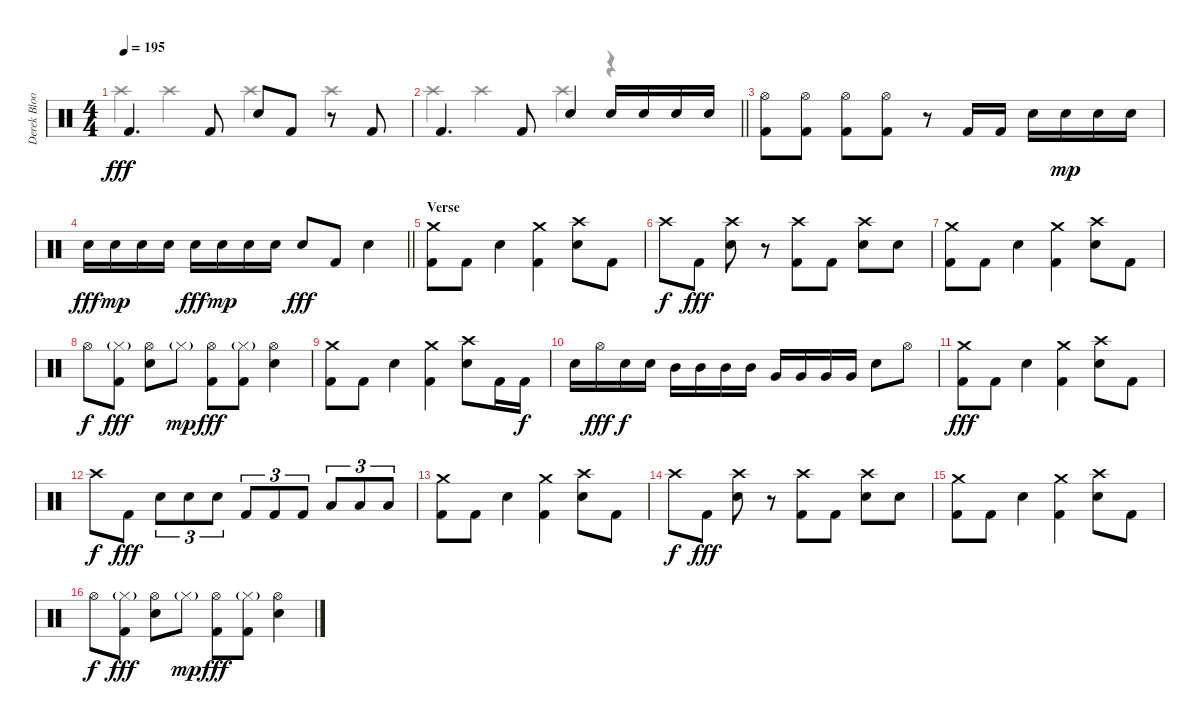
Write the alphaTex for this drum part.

\track ("Derek Bloom" "Derek Bloo") {instrument percussion}
\staff {score}
\articulation defaults
\voice
\ts (4 4)
\tempo 195
\clef neutral
\ks c "Kick (hit) 2".4{d dy fff} "Kick (hit) 2".8 "Electric Snare (hit)".8 "Kick (hit) 2".8
r.8 "Kick (hit) 2".8 |
\barLineRight lightlight "Kick (hit) 2".4{d} "Kick (hit) 2".8 "Electric Snare (hit)".4 "Electric Snare (hit)".16 "Electric Snare (hit)".16 "Electric Snare (hit)".16 "Electric Snare (hit)".16
|
("Hi-Hat (open)" "Kick (hit) 2").8 ("Hi-Hat (open)" "Kick (hit) 2").8 ("Hi-Hat (open)" "Kick (hit) 2").8 ("Hi-Hat (open)" "Kick (hit) 2").8 r.8 "Kick (hit) 2".16 "Kick (hit) 2".16 "Electric Snare (hit)".16 "Electric Snare (hit)".16{dy mp} "Electric Snare (hit)".16 "Electric Snare (hit)".16 |
\barLineRight lightlight "Electric Snare (hit)".16{dy fff} "Electric Snare (hit)".16{dy mp} "Electric Snare (hit)".16 "Electric Snare (hit)".16 "Electric Snare (hit)".16{dy fff} "Electric Snare (hit)".16{dy mp} "Electric Snare (hit)".16 "Electric Snare (hit)".16 "Electric Snare (hit)".8{dy fff} "Kick (hit) 2".8 "Electric Snare (hit)".4
|
\section ("" "Verse")
("Crash medium (hit)" "Kick (hit) 2").8 "Kick (hit) 2".8 "Electric Snare (hit)".4 ("Crash medium (hit)" "Kick (hit) 2").4 ("Crash high (hit)" "Electric Snare (hit)").8 "Kick (hit) 2".8 |
"Crash high (hit)".8{dy f} "Kick (hit) 2".8{dy fff} ("Crash high (hit)" "Electric Snare (hit)").8 r.8 ("Crash high (hit)" "Kick (hit) 2").8 "Kick (hit) 2".8 ("Crash high (hit)" "Electric Snare (hit)").8 "Electric Snare (hit)".8 |
("Crash medium (hit)" "Kick (hit) 2").8 "Kick (hit) 2".8 "Electric Snare (hit)".4 ("Crash medium (hit)" "Kick (hit) 2").4 ("Crash high (hit)" "Electric Snare (hit)").8 "Kick (hit) 2".8 |
"Hi-Hat (open)".8{dy f} ("Hi-Hat (closed)"{g} "Kick (hit) 2").8{dy fff} ("Hi-Hat (open)" "Electric Snare (hit)").8 "Hi-Hat (closed)"{g}.8{dy mp} ("Hi-Hat (open)" "Kick (hit) 2").8{dy fff} ("Hi-Hat (closed)"{g} "Kick (hit) 2").8 ("Hi-Hat (open)" "Electric Snare (hit)").4 |
("Crash medium (hit)" "Kick (hit) 2").8 "Kick (hit) 2".8 "Electric Snare (hit)".4 ("Crash medium (hit)" "Kick (hit) 2").4 ("Crash high (hit)" "Electric Snare (hit)").8 "Kick (hit) 2".16 "Kick (hit) 2".16{dy f} |
"Electric Snare (hit)".16 "Hi-Hat (open)".16{dy fff} "Electric Snare (hit)".16{dy f} "Electric Snare (hit)".16 "Mid Tom (hit)".16 "Mid Tom (hit)".16 "Mid Tom (hit)".16 "Mid Tom (hit)".16 "Very Low Tom (hit)".16 "Very Low Tom (hit)".16 "Very Low Tom (hit)".16 "Very Low Tom (hit)".16 "Electric Snare (hit)".8 "Hi-Hat (open)".8 |
("Crash medium (hit)" "Kick (hit) 2").8{dy fff} "Kick (hit) 2".8 "Electric Snare (hit)".4 ("Crash medium (hit)" "Kick (hit) 2").4 ("Crash high (hit)" "Electric Snare (hit)").8 "Kick (hit) 2".8 |
"Crash high (hit)".8{dy f} "Kick (hit) 2".8{dy fff} "Electric Snare (hit)".8{tu (3 2)} "Electric Snare (hit)".8{tu (3 2)} "Electric Snare (hit)".8{tu (3 2)} "Kick (hit) 2".8{tu (3 2)} "Kick (hit) 2".8{tu (3 2)} "Kick (hit) 2".8{tu (3 2)} "Low Floor Tom (hit)".8{tu (3 2)} "Low Floor Tom (hit)".8{tu (3 2)} "Low Floor Tom (hit)".8{tu (3 2)} |
("Crash medium (hit)" "Kick (hit) 2").8 "Kick (hit) 2".8 "Electric Snare (hit)".4 ("Crash medium (hit)" "Kick (hit) 2").4 ("Crash high (hit)" "Electric Snare (hit)").8 "Kick (hit) 2".8 |
"Crash high (hit)".8{dy f} "Kick (hit) 2".8{dy fff} ("Crash high (hit)" "Electric Snare (hit)").8 r.8 ("Crash high (hit)" "Kick (hit) 2").8 "Kick (hit) 2".8 ("Crash high (hit)" "Electric Snare (hit)").8 "Electric Snare (hit)".8 |
("Crash medium (hit)" "Kick (hit) 2").8 "Kick (hit) 2".8 "Electric Snare (hit)".4 ("Crash medium (hit)" "Kick (hit) 2").4 ("Crash high (hit)" "Electric Snare (hit)").8 "Kick (hit) 2".8 |
"Hi-Hat (open)".8{dy f} ("Hi-Hat (closed)"{g} "Kick (hit) 2").8{dy fff} ("Hi-Hat (open)" "Electric Snare (hit)").8 "Hi-Hat (closed)"{g}.8{dy mp} ("Hi-Hat (open)" "Kick (hit) 2").8{dy fff} ("Hi-Hat (closed)"{g} "Kick (hit) 2").8 ("Hi-Hat (open)" "Electric Snare (hit)").4
\voice
\clef neutral
\ottava regular
\simile none
\ks c "Crash high (hit)".4{dy fff} "Crash high (hit)".4 "Crash high (hit)".4 "Crash high (hit)".4
|
\barLineRight lightlight "Crash high (hit)".4 "Crash high (hit)".4 "Crash high (hit)".4
r.4 |
|
\barLineRight lightlight
|
|
|
|
|
|
|
|
|
|
|
|
